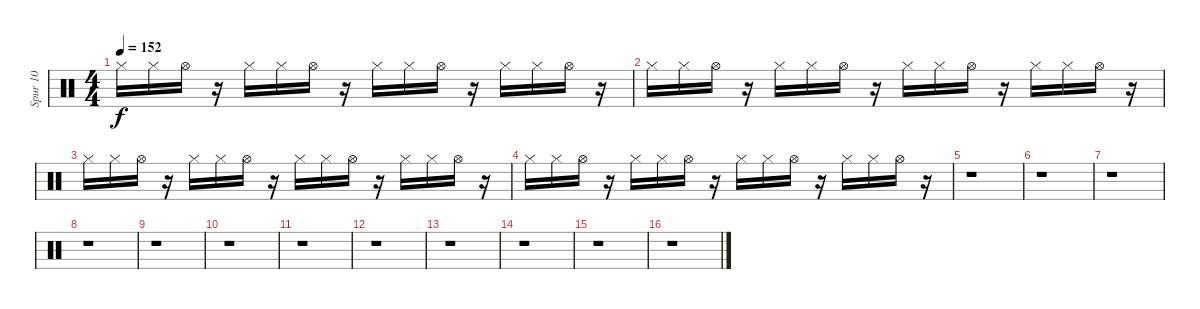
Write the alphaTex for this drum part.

\track ("Spur 10" "Spur 10") {instrument percussion}
\staff {score}
\articulation defaults
\ts (4 4)
\tempo 152
\clef neutral
\ks c "Hi-Hat (closed)".16{dy f} "Hi-Hat (closed)".16 "Hi-Hat (open)".16
r.16 "Hi-Hat (closed)".16 "Hi-Hat (closed)".16 "Hi-Hat (open)".16 r.16 "Hi-Hat (closed)".16 "Hi-Hat (closed)".16 "Hi-Hat (open)".16 r.16 "Hi-Hat (closed)".16 "Hi-Hat (closed)".16 "Hi-Hat (open)".16 r.16 |
"Hi-Hat (closed)".16 "Hi-Hat (closed)".16 "Hi-Hat (open)".16 r.16 "Hi-Hat (closed)".16 "Hi-Hat (closed)".16 "Hi-Hat (open)".16 r.16 "Hi-Hat (closed)".16 "Hi-Hat (closed)".16 "Hi-Hat (open)".16 r.16 "Hi-Hat (closed)".16 "Hi-Hat (closed)".16 "Hi-Hat (open)".16 r.16 |
"Hi-Hat (closed)".16 "Hi-Hat (closed)".16 "Hi-Hat (open)".16 r.16 "Hi-Hat (closed)".16 "Hi-Hat (closed)".16 "Hi-Hat (open)".16 r.16 "Hi-Hat (closed)".16 "Hi-Hat (closed)".16 "Hi-Hat (open)".16 r.16 "Hi-Hat (closed)".16 "Hi-Hat (closed)".16 "Hi-Hat (open)".16 r.16 |
"Hi-Hat (closed)".16 "Hi-Hat (closed)".16 "Hi-Hat (open)".16 r.16 "Hi-Hat (closed)".16 "Hi-Hat (closed)".16 "Hi-Hat (open)".16 r.16 "Hi-Hat (closed)".16 "Hi-Hat (closed)".16 "Hi-Hat (open)".16 r.16 "Hi-Hat (closed)".16 "Hi-Hat (closed)".16 "Hi-Hat (open)".16 r.16 |
r.1 |
r.1 |
r.1 |
r.1 |
r.1 |
r.1 |
r.1 |
r.1 |
r.1 |
r.1 |
r.1 |
r.1
